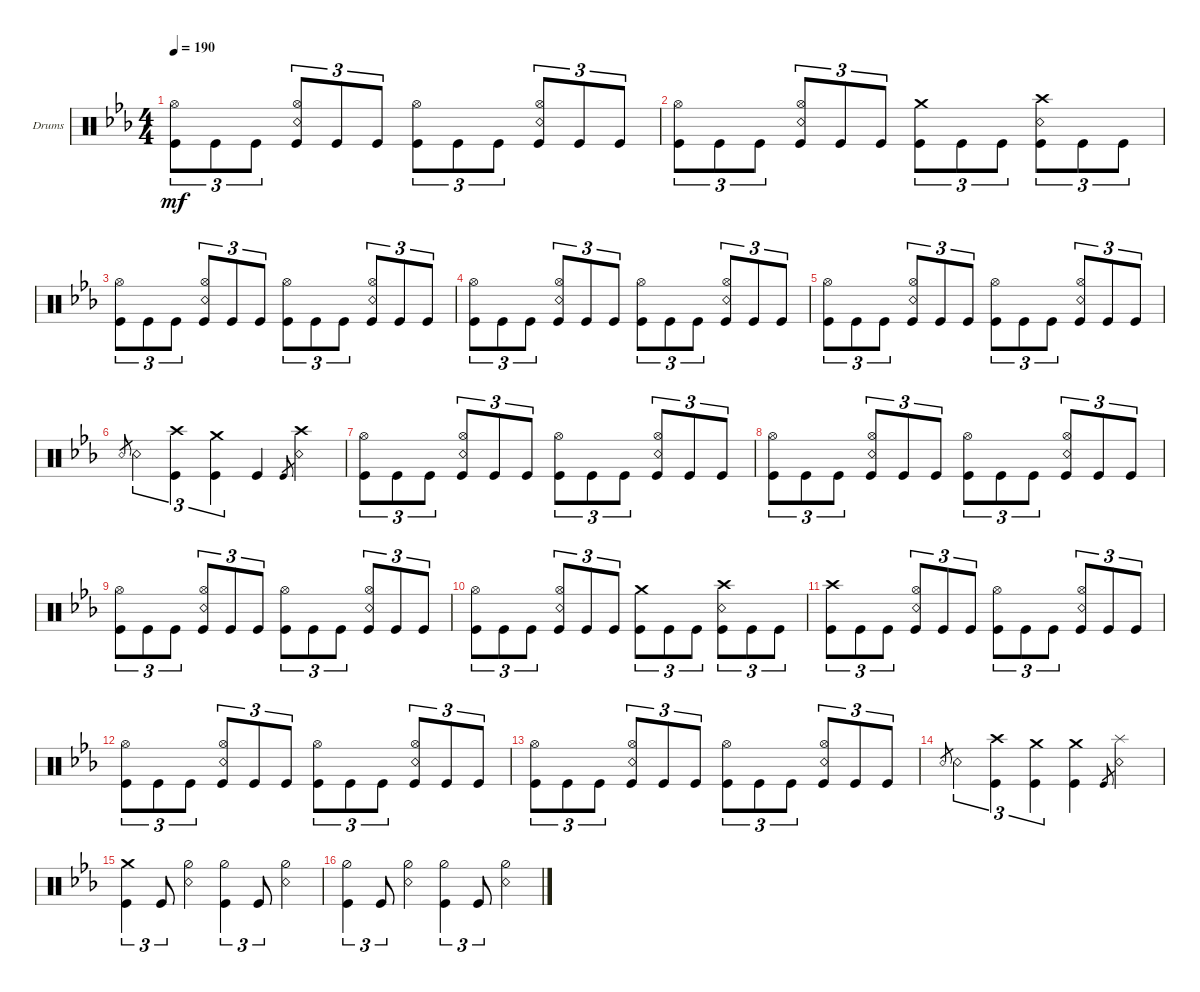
\defaultSystemsLayout 4
\bracketExtendMode groupsimilarinstruments
\firstSystemTrackNameOrientation horizontal
\otherSystemsTrackNameOrientation horizontal
\track ("Drumkit" "Drums") {instrument percussion}
\staff {score}
\articulation defaults
\ts (4 4)
\tempo 190
\clef neutral
\ks cminor
("Kick (hit)" "Hi-Hat (open)").8{tu (3 2) dy mf} "Kick (hit)".8{tu (3 2)} "Kick (hit)".8{tu (3 2)} ("Kick (hit)" "Hi-Hat (open)" "Snare (rim shot)").8{tu (3 2)} "Kick (hit)".8{tu (3 2)} "Kick (hit)".8{tu (3 2)} ("Kick (hit)" "Hi-Hat (open)").8{tu (3 2)} "Kick (hit)".8{tu (3 2)} "Kick (hit)".8{tu (3 2)} ("Kick (hit)" "Hi-Hat (open)" "Snare (rim shot)").8{tu (3 2)} "Kick (hit)".8{tu (3 2)} "Kick (hit)".8{tu (3 2)} |
("Kick (hit)" "Hi-Hat (open)").8{tu (3 2)} "Kick (hit)".8{tu (3 2)} "Kick (hit)".8{tu (3 2)} ("Kick (hit)" "Hi-Hat (open)" "Snare (rim shot)").8{tu (3 2)} "Kick (hit)".8{tu (3 2)} "Kick (hit)".8{tu (3 2)} ("Kick (hit)" "Crash medium (hit)").8{tu (3 2)} "Kick (hit)".8{tu (3 2)} "Kick (hit)".8{tu (3 2)} ("Kick (hit)" "Snare (rim shot)" "Crash high (hit)").8{tu (3 2)} "Kick (hit)".8{tu (3 2)} "Kick (hit)".8{tu (3 2)} |
("Kick (hit)" "Hi-Hat (open)").8{tu (3 2)} "Kick (hit)".8{tu (3 2)} "Kick (hit)".8{tu (3 2)} ("Kick (hit)" "Hi-Hat (open)" "Snare (rim shot)").8{tu (3 2)} "Kick (hit)".8{tu (3 2)} "Kick (hit)".8{tu (3 2)} ("Kick (hit)" "Hi-Hat (open)").8{tu (3 2)} "Kick (hit)".8{tu (3 2)} "Kick (hit)".8{tu (3 2)} ("Kick (hit)" "Hi-Hat (open)" "Snare (rim shot)").8{tu (3 2)} "Kick (hit)".8{tu (3 2)} "Kick (hit)".8{tu (3 2)} |
("Kick (hit)" "Hi-Hat (open)").8{tu (3 2)} "Kick (hit)".8{tu (3 2)} "Kick (hit)".8{tu (3 2)} ("Kick (hit)" "Hi-Hat (open)" "Snare (rim shot)").8{tu (3 2)} "Kick (hit)".8{tu (3 2)} "Kick (hit)".8{tu (3 2)} ("Kick (hit)" "Hi-Hat (open)").8{tu (3 2)} "Kick (hit)".8{tu (3 2)} "Kick (hit)".8{tu (3 2)} ("Kick (hit)" "Hi-Hat (open)" "Snare (rim shot)").8{tu (3 2)} "Kick (hit)".8{tu (3 2)} "Kick (hit)".8{tu (3 2)} |
("Kick (hit)" "Hi-Hat (open)").8{tu (3 2)} "Kick (hit)".8{tu (3 2)} "Kick (hit)".8{tu (3 2)} ("Kick (hit)" "Hi-Hat (open)" "Snare (rim shot)").8{tu (3 2)} "Kick (hit)".8{tu (3 2)} "Kick (hit)".8{tu (3 2)} ("Kick (hit)" "Hi-Hat (open)").8{tu (3 2)} "Kick (hit)".8{tu (3 2)} "Kick (hit)".8{tu (3 2)} ("Kick (hit)" "Hi-Hat (open)" "Snare (rim shot)").8{tu (3 2)} "Kick (hit)".8{tu (3 2)} "Kick (hit)".8{tu (3 2)} |
"Snare (rim shot)".8{tu (3 2) gr} "Snare (rim shot)".4{tu (3 2)} ("Kick (hit)" "Crash high (hit)").4{tu (3 2)} ("Kick (hit)" "Crash medium (hit)").4{tu (3 2)} "Kick (hit)".4 "Kick (hit)".8{gr} ("Snare (rim shot)" "Crash high (hit)").4 |
("Kick (hit)" "Hi-Hat (open)").8{tu (3 2)} "Kick (hit)".8{tu (3 2)} "Kick (hit)".8{tu (3 2)} ("Kick (hit)" "Hi-Hat (open)" "Snare (rim shot)").8{tu (3 2)} "Kick (hit)".8{tu (3 2)} "Kick (hit)".8{tu (3 2)} ("Kick (hit)" "Hi-Hat (open)").8{tu (3 2)} "Kick (hit)".8{tu (3 2)} "Kick (hit)".8{tu (3 2)} ("Kick (hit)" "Hi-Hat (open)" "Snare (rim shot)").8{tu (3 2)} "Kick (hit)".8{tu (3 2)} "Kick (hit)".8{tu (3 2)} |
("Kick (hit)" "Hi-Hat (open)").8{tu (3 2)} "Kick (hit)".8{tu (3 2)} "Kick (hit)".8{tu (3 2)} ("Kick (hit)" "Hi-Hat (open)" "Snare (rim shot)").8{tu (3 2)} "Kick (hit)".8{tu (3 2)} "Kick (hit)".8{tu (3 2)} ("Kick (hit)" "Hi-Hat (open)").8{tu (3 2)} "Kick (hit)".8{tu (3 2)} "Kick (hit)".8{tu (3 2)} ("Kick (hit)" "Hi-Hat (open)" "Snare (rim shot)").8{tu (3 2)} "Kick (hit)".8{tu (3 2)} "Kick (hit)".8{tu (3 2)} |
("Kick (hit)" "Hi-Hat (open)").8{tu (3 2)} "Kick (hit)".8{tu (3 2)} "Kick (hit)".8{tu (3 2)} ("Kick (hit)" "Hi-Hat (open)" "Snare (rim shot)").8{tu (3 2)} "Kick (hit)".8{tu (3 2)} "Kick (hit)".8{tu (3 2)} ("Kick (hit)" "Hi-Hat (open)").8{tu (3 2)} "Kick (hit)".8{tu (3 2)} "Kick (hit)".8{tu (3 2)} ("Kick (hit)" "Hi-Hat (open)" "Snare (rim shot)").8{tu (3 2)} "Kick (hit)".8{tu (3 2)} "Kick (hit)".8{tu (3 2)} |
("Kick (hit)" "Hi-Hat (open)").8{tu (3 2)} "Kick (hit)".8{tu (3 2)} "Kick (hit)".8{tu (3 2)} ("Kick (hit)" "Hi-Hat (open)" "Snare (rim shot)").8{tu (3 2)} "Kick (hit)".8{tu (3 2)} "Kick (hit)".8{tu (3 2)} ("Kick (hit)" "Crash medium (hit)").8{tu (3 2)} "Kick (hit)".8{tu (3 2)} "Kick (hit)".8{tu (3 2)} ("Kick (hit)" "Snare (rim shot)" "Crash high (hit)").8{tu (3 2)} "Kick (hit)".8{tu (3 2)} "Kick (hit)".8{tu (3 2)} |
("Kick (hit)" "Crash high (hit)").8{tu (3 2)} "Kick (hit)".8{tu (3 2)} "Kick (hit)".8{tu (3 2)} ("Kick (hit)" "Hi-Hat (open)" "Snare (rim shot)").8{tu (3 2)} "Kick (hit)".8{tu (3 2)} "Kick (hit)".8{tu (3 2)} ("Kick (hit)" "Hi-Hat (open)").8{tu (3 2)} "Kick (hit)".8{tu (3 2)} "Kick (hit)".8{tu (3 2)} ("Kick (hit)" "Hi-Hat (open)" "Snare (rim shot)").8{tu (3 2)} "Kick (hit)".8{tu (3 2)} "Kick (hit)".8{tu (3 2)} |
("Kick (hit)" "Hi-Hat (open)").8{tu (3 2)} "Kick (hit)".8{tu (3 2)} "Kick (hit)".8{tu (3 2)} ("Kick (hit)" "Hi-Hat (open)" "Snare (rim shot)").8{tu (3 2)} "Kick (hit)".8{tu (3 2)} "Kick (hit)".8{tu (3 2)} ("Kick (hit)" "Hi-Hat (open)").8{tu (3 2)} "Kick (hit)".8{tu (3 2)} "Kick (hit)".8{tu (3 2)} ("Kick (hit)" "Hi-Hat (open)" "Snare (rim shot)").8{tu (3 2)} "Kick (hit)".8{tu (3 2)} "Kick (hit)".8{tu (3 2)} |
("Kick (hit)" "Hi-Hat (open)").8{tu (3 2)} "Kick (hit)".8{tu (3 2)} "Kick (hit)".8{tu (3 2)} ("Kick (hit)" "Hi-Hat (open)" "Snare (rim shot)").8{tu (3 2)} "Kick (hit)".8{tu (3 2)} "Kick (hit)".8{tu (3 2)} ("Kick (hit)" "Hi-Hat (open)").8{tu (3 2)} "Kick (hit)".8{tu (3 2)} "Kick (hit)".8{tu (3 2)} ("Kick (hit)" "Hi-Hat (open)" "Snare (rim shot)").8{tu (3 2)} "Kick (hit)".8{tu (3 2)} "Kick (hit)".8{tu (3 2)} |
"Snare (rim shot)".8{tu (3 2) gr} "Snare (rim shot)".4{tu (3 2)} ("Kick (hit)" "Crash high (hit)").4{tu (3 2)} ("Kick (hit)" "Crash medium (hit)").4{tu (3 2)} ("Kick (hit)" "Crash medium (hit)").4 "Kick (hit)".8{gr} ("Snare (rim shot)" "Splash (hit)").4 |
("Kick (hit)" "Crash medium (hit)").4{tu (3 2)} "Kick (hit)".8{tu (3 2)} ("Hi-Hat (half)" "Snare (rim shot)").4 ("Kick (hit)" "Hi-Hat (half)").4{tu (3 2)} "Kick (hit)".8{tu (3 2)} ("Hi-Hat (half)" "Snare (rim shot)").4 |
("Kick (hit)" "Hi-Hat (half)").4{tu (3 2)} "Kick (hit)".8{tu (3 2)} ("Hi-Hat (half)" "Snare (rim shot)").4 ("Kick (hit)" "Hi-Hat (half)").4{tu (3 2)} "Kick (hit)".8{tu (3 2)} ("Hi-Hat (half)" "Snare (rim shot)").4
